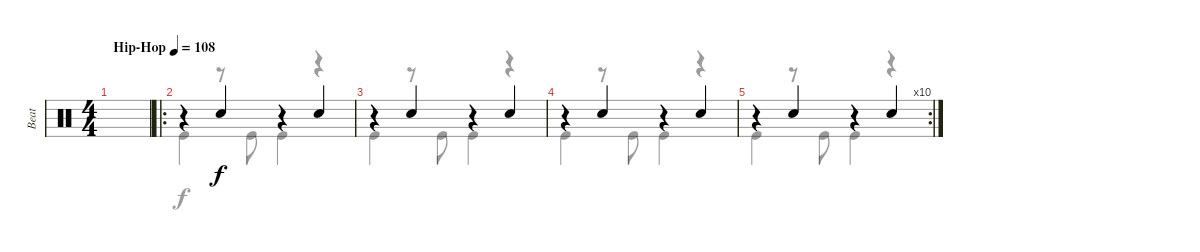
\track ("Beat" "Beat") {instrument percussion}
\staff {score}
\articulation defaults
\voice
\ts (4 4)
\tempo (108 "Hip-Hop")
\clef neutral
\ks c
|
\ro
r.4 "Hand Clap (hit)".4 r.4 "Hand Clap (hit)".4 |
r.4 "Hand Clap (hit)".4 r.4 "Hand Clap (hit)".4 |
r.4 "Hand Clap (hit)".4 r.4 "Hand Clap (hit)".4 |
\rc 10
r.4 "Hand Clap (hit)".4 r.4 "Hand Clap (hit)".4
\voice
\clef neutral
\ottava regular
\simile none
\ks c
|
"Kick (hit)".4 r.8 "Kick (hit)".8 "Kick (hit)".4 r.4 |
"Kick (hit)".4 r.8 "Kick (hit)".8 "Kick (hit)".4 r.4 |
"Kick (hit)".4 r.8 "Kick (hit)".8 "Kick (hit)".4 r.4 |
"Kick (hit)".4 r.8 "Kick (hit)".8 "Kick (hit)".4 r.4
